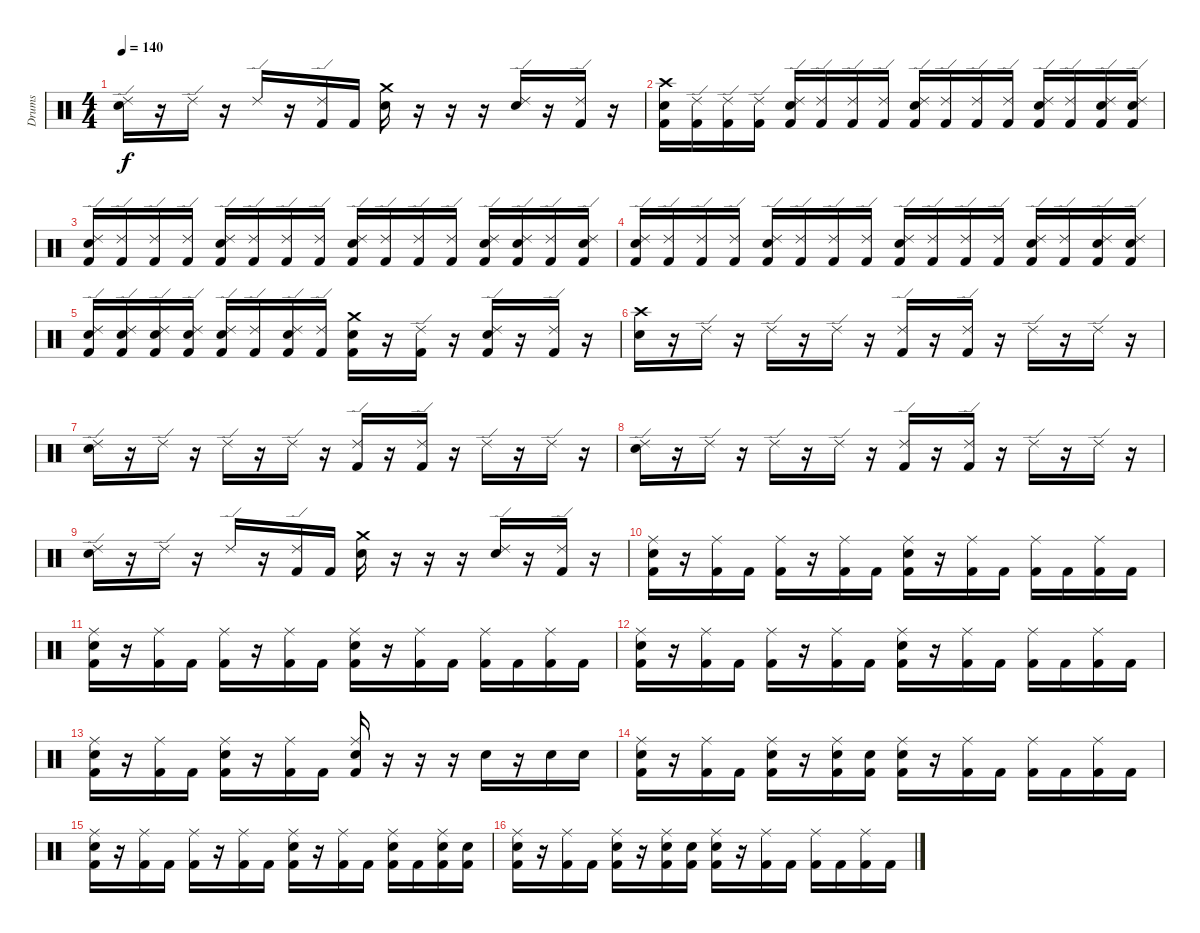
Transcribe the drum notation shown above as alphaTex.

\track ("Drums" "Drums") {instrument percussion}
\staff {score}
\articulation defaults
\ts (4 4)
\tempo 140
\clef neutral
\ks c
("Ride (edge) 2" "Snare (hit) 2").16{dy f} r.16 "Ride (edge) 2".16 r.16 "Ride (edge) 2".16 r.16 ("Ride (edge) 2" "Kick (hit) 2").16 "Kick (hit) 2".16 ("Crash medium (hit)" "Snare (hit) 2").16 r.16 r.16 r.16 ("Ride (edge) 2" "Snare (hit) 2").16 r.16 ("Ride (edge) 2" "Kick (hit) 2").16 r.16 |
("Crash high (hit)" "Snare (hit) 2" "Kick (hit) 2").16 ("Ride (edge) 2" "Kick (hit) 2").16 ("Ride (edge) 2" "Kick (hit) 2").16 ("Ride (edge) 2" "Kick (hit) 2").16 ("Ride (edge) 2" "Snare (hit) 2" "Kick (hit) 2").16 ("Ride (edge) 2" "Kick (hit) 2").16 ("Ride (edge) 2" "Kick (hit) 2").16 ("Ride (edge) 2" "Kick (hit) 2").16 ("Ride (edge) 2" "Snare (hit) 2" "Kick (hit) 2").16 ("Ride (edge) 2" "Kick (hit) 2").16 ("Ride (edge) 2" "Kick (hit) 2").16 ("Ride (edge) 2" "Kick (hit) 2").16 ("Ride (edge) 2" "Snare (hit) 2" "Kick (hit) 2").16 ("Ride (edge) 2" "Kick (hit) 2").16 ("Ride (edge) 2" "Snare (hit) 2" "Kick (hit) 2").16 ("Ride (edge) 2" "Snare (hit) 2" "Kick (hit) 2").16 |
("Ride (edge) 2" "Snare (hit) 2" "Kick (hit) 2").16 ("Ride (edge) 2" "Kick (hit) 2").16 ("Ride (edge) 2" "Kick (hit) 2").16 ("Ride (edge) 2" "Kick (hit) 2").16 ("Ride (edge) 2" "Snare (hit) 2" "Kick (hit) 2").16 ("Ride (edge) 2" "Kick (hit) 2").16 ("Ride (edge) 2" "Kick (hit) 2").16 ("Ride (edge) 2" "Kick (hit) 2").16 ("Ride (edge) 2" "Snare (hit) 2" "Kick (hit) 2").16 ("Ride (edge) 2" "Kick (hit) 2").16 ("Ride (edge) 2" "Kick (hit) 2").16 ("Ride (edge) 2" "Kick (hit) 2").16 ("Ride (edge) 2" "Snare (hit) 2" "Kick (hit) 2").16 ("Ride (edge) 2" "Snare (hit) 2" "Kick (hit) 2").16 ("Ride (edge) 2" "Kick (hit) 2").16 ("Ride (edge) 2" "Snare (hit) 2" "Kick (hit) 2").16 |
("Ride (edge) 2" "Snare (hit) 2" "Kick (hit) 2").16 ("Ride (edge) 2" "Kick (hit) 2").16 ("Ride (edge) 2" "Kick (hit) 2").16 ("Ride (edge) 2" "Kick (hit) 2").16 ("Ride (edge) 2" "Snare (hit) 2" "Kick (hit) 2").16 ("Ride (edge) 2" "Kick (hit) 2").16 ("Ride (edge) 2" "Kick (hit) 2").16 ("Ride (edge) 2" "Kick (hit) 2").16 ("Ride (edge) 2" "Snare (hit) 2" "Kick (hit) 2").16 ("Ride (edge) 2" "Kick (hit) 2").16 ("Ride (edge) 2" "Kick (hit) 2").16 ("Ride (edge) 2" "Kick (hit) 2").16 ("Ride (edge) 2" "Snare (hit) 2" "Kick (hit) 2").16 ("Ride (edge) 2" "Kick (hit) 2").16 ("Ride (edge) 2" "Snare (hit) 2" "Kick (hit) 2").16 ("Ride (edge) 2" "Snare (hit) 2" "Kick (hit) 2").16 |
("Ride (edge) 2" "Snare (hit) 2" "Kick (hit) 2").16 ("Ride (edge) 2" "Snare (hit) 2" "Kick (hit) 2").16 ("Ride (edge) 2" "Snare (hit) 2" "Kick (hit) 2").16 ("Ride (edge) 2" "Snare (hit) 2" "Kick (hit) 2").16 ("Ride (edge) 2" "Snare (hit) 2" "Kick (hit) 2").16 ("Ride (edge) 2" "Kick (hit) 2").16 ("Ride (edge) 2" "Snare (hit) 2" "Kick (hit) 2").16 ("Ride (edge) 2" "Kick (hit) 2").16 ("Crash medium (hit)" "Snare (hit) 2" "Kick (hit) 2").16 r.16 ("Ride (edge) 2" "Kick (hit) 2").16 r.16 ("Ride (edge) 2" "Snare (hit) 2" "Kick (hit) 2").16 r.16 ("Ride (edge) 2" "Kick (hit) 2").16 r.16 |
("Crash high (hit)" "Snare (hit) 2").16 r.16 "Ride (edge) 2".16 r.16 "Ride (edge) 2".16 r.16 "Ride (edge) 2".16 r.16 ("Ride (edge) 2" "Kick (hit) 2").16 r.16 ("Ride (edge) 2" "Kick (hit) 2").16 r.16 "Ride (edge) 2".16 r.16 "Ride (edge) 2".16 r.16 |
("Ride (edge) 2" "Snare (hit) 2").16 r.16 "Ride (edge) 2".16 r.16 "Ride (edge) 2".16 r.16 "Ride (edge) 2".16 r.16 ("Ride (edge) 2" "Kick (hit) 2").16 r.16 ("Ride (edge) 2" "Kick (hit) 2").16 r.16 "Ride (edge) 2".16 r.16 "Ride (edge) 2".16 r.16 |
("Ride (edge) 2" "Snare (hit) 2").16 r.16 "Ride (edge) 2".16 r.16 "Ride (edge) 2".16 r.16 "Ride (edge) 2".16 r.16 ("Ride (edge) 2" "Kick (hit) 2").16 r.16 ("Ride (edge) 2" "Kick (hit) 2").16 r.16 "Ride (edge) 2".16 r.16 "Ride (edge) 2".16 r.16 |
("Ride (edge) 2" "Snare (hit) 2").16 r.16 "Ride (edge) 2".16 r.16 "Ride (edge) 2".16 r.16 ("Ride (edge) 2" "Kick (hit) 2").16 "Kick (hit) 2".16 ("Crash medium (hit)" "Snare (hit) 2").16 r.16 r.16 r.16 ("Ride (edge) 2" "Snare (hit) 2").16 r.16 ("Ride (edge) 2" "Kick (hit) 2").16 r.16 |
("Ride (middle)" "Snare (hit) 2" "Kick (hit) 2").16 r.16 ("Ride (middle)" "Kick (hit) 2").16 "Kick (hit) 2".16 ("Ride (middle)" "Kick (hit) 2").16 r.16 ("Ride (middle)" "Kick (hit) 2").16 "Kick (hit) 2".16 ("Ride (middle)" "Snare (hit) 2" "Kick (hit) 2").16 r.16 ("Ride (middle)" "Kick (hit) 2").16 "Kick (hit) 2".16 ("Ride (middle)" "Kick (hit) 2").16 "Kick (hit) 2".16 ("Ride (middle)" "Kick (hit) 2").16 "Kick (hit) 2".16 |
("Ride (middle)" "Snare (hit) 2" "Kick (hit) 2").16 r.16 ("Ride (middle)" "Kick (hit) 2").16 "Kick (hit) 2".16 ("Ride (middle)" "Kick (hit) 2").16 r.16 ("Ride (middle)" "Kick (hit) 2").16 "Kick (hit) 2".16 ("Ride (middle)" "Snare (hit) 2" "Kick (hit) 2").16 r.16 ("Ride (middle)" "Kick (hit) 2").16 "Kick (hit) 2".16 ("Ride (middle)" "Kick (hit) 2").16 "Kick (hit) 2".16 ("Ride (middle)" "Kick (hit) 2").16 "Kick (hit) 2".16 |
("Ride (middle)" "Snare (hit) 2" "Kick (hit) 2").16 r.16 ("Ride (middle)" "Kick (hit) 2").16 "Kick (hit) 2".16 ("Ride (middle)" "Kick (hit) 2").16 r.16 ("Ride (middle)" "Kick (hit) 2").16 "Kick (hit) 2".16 ("Ride (middle)" "Snare (hit) 2" "Kick (hit) 2").16 r.16 ("Ride (middle)" "Kick (hit) 2").16 "Kick (hit) 2".16 ("Ride (middle)" "Kick (hit) 2").16 "Kick (hit) 2".16 ("Ride (middle)" "Kick (hit) 2").16 "Kick (hit) 2".16 |
("Ride (middle)" "Snare (hit) 2" "Kick (hit) 2").16 r.16 ("Ride (middle)" "Kick (hit) 2").16 "Kick (hit) 2".16 ("Ride (middle)" "Snare (hit) 2" "Kick (hit) 2").16 r.16 ("Ride (middle)" "Kick (hit) 2").16 "Kick (hit) 2".16 ("Ride (middle)" "Electric Snare (hit)" "Kick (hit) 2").16 r.16 r.16 r.16 "Snare (hit) 2".16 r.16 "Snare (hit) 2".16 "Snare (hit) 2".16 |
("Ride (middle)" "Snare (hit) 2" "Kick (hit) 2").16 r.16 ("Ride (middle)" "Kick (hit) 2").16 "Kick (hit) 2".16 ("Ride (middle)" "Snare (hit) 2" "Kick (hit) 2").16 r.16 ("Ride (middle)" "Snare (hit) 2" "Kick (hit) 2").16 ("Snare (hit) 2" "Kick (hit) 2").16 ("Ride (middle)" "Snare (hit) 2" "Kick (hit) 2").16 r.16 ("Ride (middle)" "Kick (hit) 2").16 "Kick (hit) 2".16 ("Ride (middle)" "Kick (hit) 2").16 "Kick (hit) 2".16 ("Ride (middle)" "Kick (hit) 2").16 "Kick (hit) 2".16 |
("Ride (middle)" "Snare (hit) 2" "Kick (hit) 2").16 r.16 ("Ride (middle)" "Kick (hit) 2").16 "Kick (hit) 2".16 ("Ride (middle)" "Kick (hit) 2").16 r.16 ("Ride (middle)" "Kick (hit) 2").16 "Kick (hit) 2".16 ("Ride (middle)" "Snare (hit) 2" "Kick (hit) 2").16 r.16 ("Ride (middle)" "Kick (hit) 2").16 "Kick (hit) 2".16 ("Ride (middle)" "Snare (hit) 2" "Kick (hit) 2").16 "Kick (hit) 2".16 ("Ride (middle)" "Snare (hit) 2" "Kick (hit) 2").16 ("Snare (hit) 2" "Kick (hit) 2").16 |
("Ride (middle)" "Snare (hit) 2" "Kick (hit) 2").16 r.16 ("Ride (middle)" "Kick (hit) 2").16 "Kick (hit) 2".16 ("Ride (middle)" "Snare (hit) 2" "Kick (hit) 2").16 r.16 ("Ride (middle)" "Snare (hit) 2" "Kick (hit) 2").16 ("Snare (hit) 2" "Kick (hit) 2").16 ("Ride (middle)" "Snare (hit) 2" "Kick (hit) 2").16 r.16 ("Ride (middle)" "Kick (hit) 2").16 "Kick (hit) 2".16 ("Ride (middle)" "Kick (hit) 2").16 "Kick (hit) 2".16 ("Ride (middle)" "Kick (hit) 2").16 "Kick (hit) 2".16
